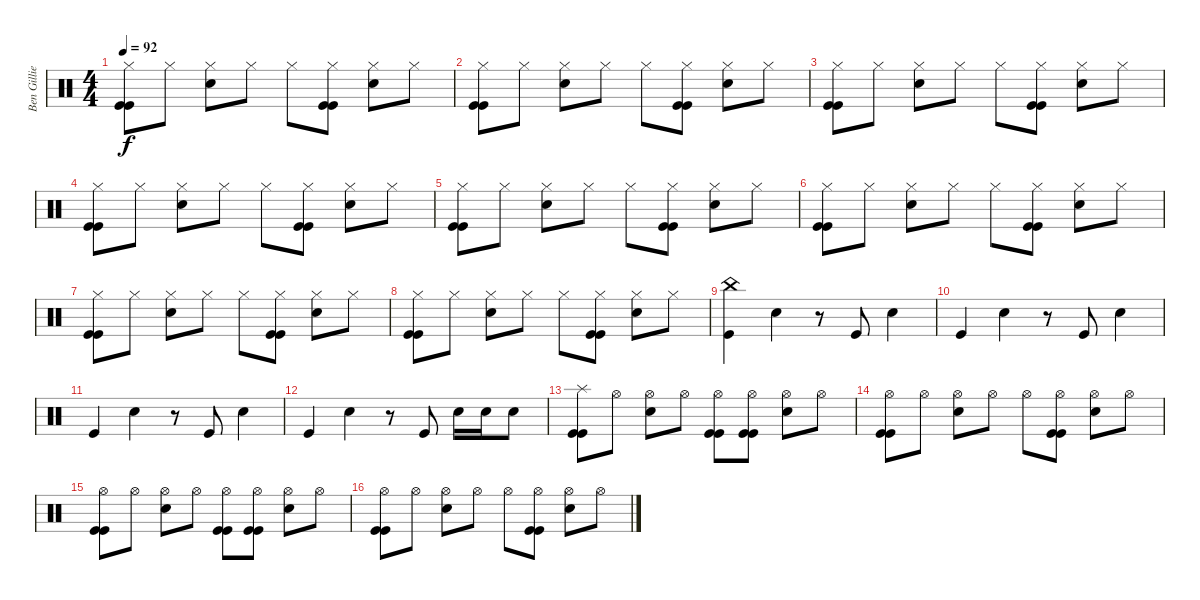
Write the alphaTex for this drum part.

\track ("Ben Gillies (Drums)" "Ben Gillie") {instrument percussion}
\staff {score}
\articulation defaults
\ts (4 4)
\tempo 92
\clef neutral
\ks c
("Hi-Hat (closed)" "Kick (hit)" "Kick (hit)").8{dy f} "Hi-Hat (closed)".8 ("Electric Snare (hit)" "Hi-Hat (closed)").8 "Hi-Hat (closed)".8 "Hi-Hat (closed)".8 ("Hi-Hat (closed)" "Kick (hit)" "Kick (hit)").8 ("Electric Snare (hit)" "Hi-Hat (closed)").8 "Hi-Hat (closed)".8 |
("Hi-Hat (closed)" "Kick (hit)" "Kick (hit)").8 "Hi-Hat (closed)".8 ("Electric Snare (hit)" "Hi-Hat (closed)").8 "Hi-Hat (closed)".8 "Hi-Hat (closed)".8 ("Hi-Hat (closed)" "Kick (hit)" "Kick (hit)").8 ("Electric Snare (hit)" "Hi-Hat (closed)").8 "Hi-Hat (closed)".8 |
("Hi-Hat (closed)" "Kick (hit)" "Kick (hit)").8 "Hi-Hat (closed)".8 ("Electric Snare (hit)" "Hi-Hat (closed)").8 "Hi-Hat (closed)".8 "Hi-Hat (closed)".8 ("Hi-Hat (closed)" "Kick (hit)" "Kick (hit)").8 ("Electric Snare (hit)" "Hi-Hat (closed)").8 "Hi-Hat (closed)".8 |
("Hi-Hat (closed)" "Kick (hit)" "Kick (hit)").8 "Hi-Hat (closed)".8 ("Electric Snare (hit)" "Hi-Hat (closed)").8 "Hi-Hat (closed)".8 "Hi-Hat (closed)".8 ("Hi-Hat (closed)" "Kick (hit)" "Kick (hit)").8 ("Electric Snare (hit)" "Hi-Hat (closed)").8 "Hi-Hat (closed)".8 |
("Hi-Hat (closed)" "Kick (hit)" "Kick (hit)").8 "Hi-Hat (closed)".8 ("Electric Snare (hit)" "Hi-Hat (closed)").8 "Hi-Hat (closed)".8 "Hi-Hat (closed)".8 ("Hi-Hat (closed)" "Kick (hit)" "Kick (hit)").8 ("Electric Snare (hit)" "Hi-Hat (closed)").8 "Hi-Hat (closed)".8 |
("Hi-Hat (closed)" "Kick (hit)" "Kick (hit)").8 "Hi-Hat (closed)".8 ("Electric Snare (hit)" "Hi-Hat (closed)").8 "Hi-Hat (closed)".8 "Hi-Hat (closed)".8 ("Hi-Hat (closed)" "Kick (hit)" "Kick (hit)").8 ("Electric Snare (hit)" "Hi-Hat (closed)").8 "Hi-Hat (closed)".8 |
("Hi-Hat (closed)" "Kick (hit)" "Kick (hit)").8 "Hi-Hat (closed)".8 ("Electric Snare (hit)" "Hi-Hat (closed)").8 "Hi-Hat (closed)".8 "Hi-Hat (closed)".8 ("Hi-Hat (closed)" "Kick (hit)" "Kick (hit)").8 ("Electric Snare (hit)" "Hi-Hat (closed)").8 "Hi-Hat (closed)".8 |
("Hi-Hat (closed)" "Kick (hit)" "Kick (hit)").8 "Hi-Hat (closed)".8 ("Electric Snare (hit)" "Hi-Hat (closed)").8 "Hi-Hat (closed)".8 "Hi-Hat (closed)".8 ("Hi-Hat (closed)" "Kick (hit)" "Kick (hit)").8 ("Electric Snare (hit)" "Hi-Hat (closed)").8 "Hi-Hat (closed)".8 |
("China (hit)" "Kick (hit)").4 "Electric Snare (hit)".4 r.8 "Kick (hit)".8 "Electric Snare (hit)".4 |
"Kick (hit)".4 "Electric Snare (hit)".4 r.8 "Kick (hit)".8 "Electric Snare (hit)".4 |
"Kick (hit)".4 "Electric Snare (hit)".4 r.8 "Kick (hit)".8 "Electric Snare (hit)".4 |
"Kick (hit)".4 "Electric Snare (hit)".4 r.8 "Kick (hit)".8 "Electric Snare (hit)".16 "Electric Snare (hit)".16 "Electric Snare (hit)".8 |
("Splash (hit)" "Kick (hit)" "Kick (hit)").8 "Hi-Hat (open)".8 ("Electric Snare (hit)" "Hi-Hat (open)").8 "Hi-Hat (open)".8 ("Hi-Hat (open)" "Kick (hit)" "Kick (hit)").8 ("Hi-Hat (open)" "Kick (hit)" "Kick (hit)").8 ("Electric Snare (hit)" "Hi-Hat (open)").8 "Hi-Hat (open)".8 |
("Hi-Hat (open)" "Kick (hit)" "Kick (hit)").8 "Hi-Hat (open)".8 ("Electric Snare (hit)" "Hi-Hat (open)").8 "Hi-Hat (open)".8 "Hi-Hat (open)".8 ("Hi-Hat (open)" "Kick (hit)" "Kick (hit)").8 ("Electric Snare (hit)" "Hi-Hat (open)").8 "Hi-Hat (open)".8 |
("Hi-Hat (open)" "Kick (hit)" "Kick (hit)").8 "Hi-Hat (open)".8 ("Electric Snare (hit)" "Hi-Hat (open)").8 "Hi-Hat (open)".8 ("Hi-Hat (open)" "Kick (hit)" "Kick (hit)").8 ("Hi-Hat (open)" "Kick (hit)" "Kick (hit)").8 ("Electric Snare (hit)" "Hi-Hat (open)").8 "Hi-Hat (open)".8 |
("Hi-Hat (open)" "Kick (hit)" "Kick (hit)").8 "Hi-Hat (open)".8 ("Electric Snare (hit)" "Hi-Hat (open)").8 "Hi-Hat (open)".8 "Hi-Hat (open)".8 ("Hi-Hat (open)" "Kick (hit)" "Kick (hit)").8 ("Electric Snare (hit)" "Hi-Hat (open)").8 "Hi-Hat (open)".8
